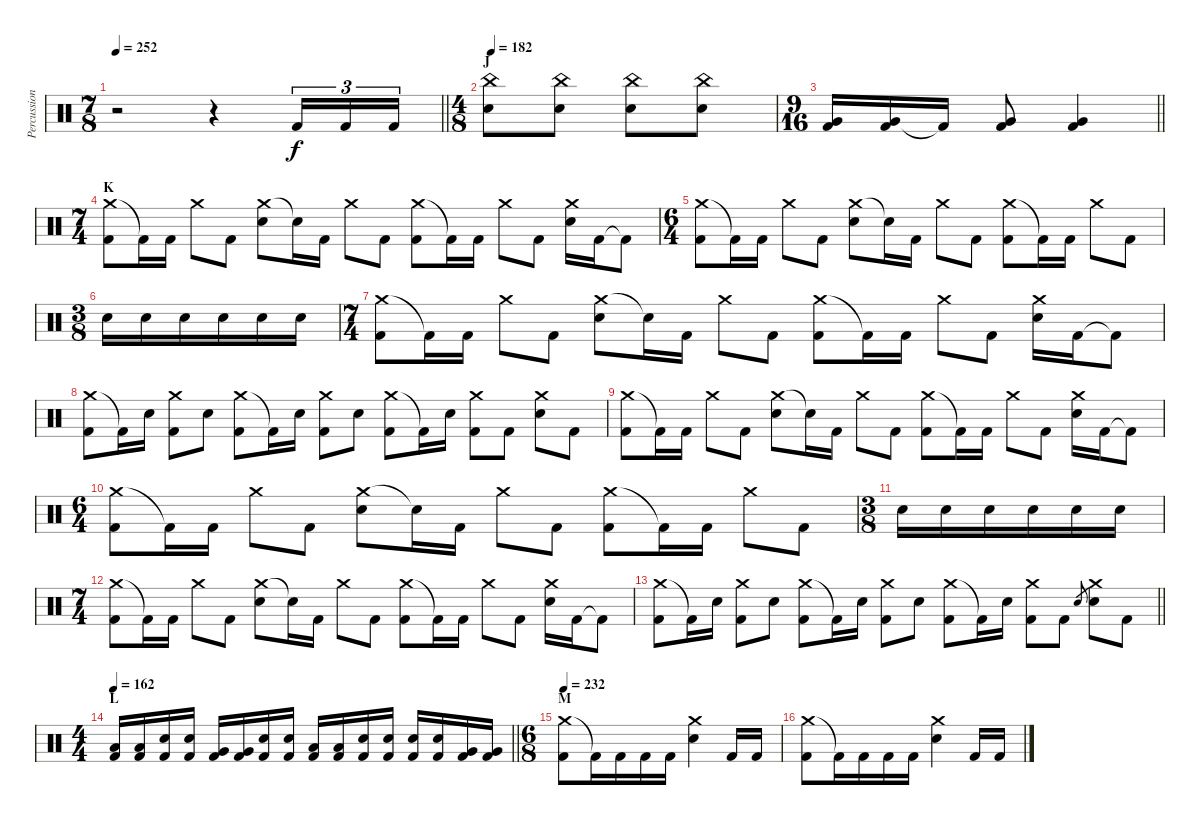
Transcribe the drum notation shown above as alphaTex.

\track ("Percussion" "Percussion") {instrument percussion}
\staff {score}
\articulation defaults
\ts (7 8)
\tempo 252
\clef neutral
\barLineRight lightlight
\ks c
r.2{dy f} r.4 "Kick (hit) 2".16{tu (3 2) volume 14} "Kick (hit) 2".16{tu (3 2)} "Kick (hit) 2".16{tu (3 2)} |
\ts (4 8)
\section ("" "J")
\tempo 182
("China (hit)" "Electric Snare (hit)").8 ("China (hit)" "Electric Snare (hit)").8 ("China (hit)" "Electric Snare (hit)").8 ("China (hit)" "Electric Snare (hit)").8 |
\ts (9 16)
\barLineRight lightlight
("Very Low Tom (hit)" "Kick (hit) 2").16 ("Very Low Tom (hit)" "Kick (hit) 2").16 "Kick (hit) 2"{t}.16 ("Very Low Tom (hit)" "Kick (hit) 2").8 ("Very Low Tom (hit)" "Kick (hit) 2").4 |
\ts (7 4)
\section ("" "K")
("Crash medium (hit)" "Kick (hit) 2").8 "Kick (hit) 2"{t}.16 "Kick (hit) 2".16 "Crash medium (hit)".8 "Kick (hit) 2".8 ("Crash medium (hit)" "Electric Snare (hit)").8 "Electric Snare (hit)"{t}.16 "Kick (hit) 2".16 "Crash medium (hit)".8 "Kick (hit) 2".8 ("Crash medium (hit)" "Kick (hit) 2").8 "Kick (hit) 2"{t}.16 "Kick (hit) 2".16 "Crash medium (hit)".8 "Kick (hit) 2".8 ("Crash medium (hit)" "Electric Snare (hit)").16 "Kick (hit) 2".16 "Kick (hit) 2"{t}.8 |
\ts (6 4)
("Crash medium (hit)" "Kick (hit) 2").8 "Kick (hit) 2"{t}.16 "Kick (hit) 2".16 "Crash medium (hit)".8 "Kick (hit) 2".8 ("Crash medium (hit)" "Electric Snare (hit)").8 "Electric Snare (hit)"{t}.16 "Kick (hit) 2".16 "Crash medium (hit)".8 "Kick (hit) 2".8 ("Crash medium (hit)" "Kick (hit) 2").8 "Kick (hit) 2"{t}.16 "Kick (hit) 2".16 "Crash medium (hit)".8 "Kick (hit) 2".8 |
\ts (3 8)
"Electric Snare (hit)".16 "Electric Snare (hit)".16 "Electric Snare (hit)".16 "Electric Snare (hit)".16 "Electric Snare (hit)".16 "Electric Snare (hit)".16 |
\ts (7 4)
("Crash medium (hit)" "Kick (hit) 2").8 "Kick (hit) 2"{t}.16 "Kick (hit) 2".16 "Crash medium (hit)".8 "Kick (hit) 2".8 ("Crash medium (hit)" "Electric Snare (hit)").8 "Electric Snare (hit)"{t}.16 "Kick (hit) 2".16 "Crash medium (hit)".8 "Kick (hit) 2".8 ("Crash medium (hit)" "Kick (hit) 2").8 "Kick (hit) 2"{t}.16 "Kick (hit) 2".16 "Crash medium (hit)".8 "Kick (hit) 2".8 ("Crash medium (hit)" "Electric Snare (hit)").16 "Kick (hit) 2".16 "Kick (hit) 2"{t}.8 |
("Crash medium (hit)" "Kick (hit) 2").8 "Kick (hit) 2"{t}.16 "Electric Snare (hit)".16 ("Crash medium (hit)" "Kick (hit) 2").8 "Electric Snare (hit)".8 ("Crash medium (hit)" "Kick (hit) 2").8 "Kick (hit) 2"{t}.16 "Electric Snare (hit)".16 ("Crash medium (hit)" "Kick (hit) 2").8 "Electric Snare (hit)".8 ("Crash medium (hit)" "Kick (hit) 2").8 "Kick (hit) 2"{t}.16 "Electric Snare (hit)".16 ("Crash medium (hit)" "Kick (hit) 2").8 "Kick (hit) 2".8 ("Crash medium (hit)" "Electric Snare (hit)").8 "Kick (hit) 2".8 |
("Crash medium (hit)" "Kick (hit) 2").8 "Kick (hit) 2"{t}.16 "Kick (hit) 2".16 "Crash medium (hit)".8 "Kick (hit) 2".8 ("Crash medium (hit)" "Electric Snare (hit)").8 "Electric Snare (hit)"{t}.16 "Kick (hit) 2".16 "Crash medium (hit)".8 "Kick (hit) 2".8 ("Crash medium (hit)" "Kick (hit) 2").8 "Kick (hit) 2"{t}.16 "Kick (hit) 2".16 "Crash medium (hit)".8 "Kick (hit) 2".8 ("Crash medium (hit)" "Electric Snare (hit)").16 "Kick (hit) 2".16 "Kick (hit) 2"{t}.8 |
\ts (6 4)
("Crash medium (hit)" "Kick (hit) 2").8 "Kick (hit) 2"{t}.16 "Kick (hit) 2".16 "Crash medium (hit)".8 "Kick (hit) 2".8 ("Crash medium (hit)" "Electric Snare (hit)").8 "Electric Snare (hit)"{t}.16 "Kick (hit) 2".16 "Crash medium (hit)".8 "Kick (hit) 2".8 ("Crash medium (hit)" "Kick (hit) 2").8 "Kick (hit) 2"{t}.16 "Kick (hit) 2".16 "Crash medium (hit)".8 "Kick (hit) 2".8 |
\ts (3 8)
"Electric Snare (hit)".16 "Electric Snare (hit)".16 "Electric Snare (hit)".16 "Electric Snare (hit)".16 "Electric Snare (hit)".16 "Electric Snare (hit)".16 |
\ts (7 4)
("Crash medium (hit)" "Kick (hit) 2").8 "Kick (hit) 2"{t}.16 "Kick (hit) 2".16 "Crash medium (hit)".8 "Kick (hit) 2".8 ("Crash medium (hit)" "Electric Snare (hit)").8 "Electric Snare (hit)"{t}.16 "Kick (hit) 2".16 "Crash medium (hit)".8 "Kick (hit) 2".8 ("Crash medium (hit)" "Kick (hit) 2").8 "Kick (hit) 2"{t}.16 "Kick (hit) 2".16 "Crash medium (hit)".8 "Kick (hit) 2".8 ("Crash medium (hit)" "Electric Snare (hit)").16 "Kick (hit) 2".16 "Kick (hit) 2"{t}.8 |
\barLineRight lightlight
("Crash medium (hit)" "Kick (hit) 2").8 "Kick (hit) 2"{t}.16 "Electric Snare (hit)".16 ("Crash medium (hit)" "Kick (hit) 2").8 "Electric Snare (hit)".8 ("Crash medium (hit)" "Kick (hit) 2").8 "Kick (hit) 2"{t}.16 "Electric Snare (hit)".16 ("Crash medium (hit)" "Kick (hit) 2").8 "Electric Snare (hit)".8 ("Crash medium (hit)" "Kick (hit) 2").8 "Kick (hit) 2"{t}.16 "Electric Snare (hit)".16 ("Crash medium (hit)" "Kick (hit) 2").8 "Kick (hit) 2".8 "Electric Snare (hit)".8{gr} ("Crash medium (hit)" "Electric Snare (hit)").8 "Kick (hit) 2".8 |
\ts (4 4)
\section ("" "L")
\tempo 162
\barLineRight lightlight
("Low Tom (hit)" "Kick (hit) 2").16 ("Low Tom (hit)" "Kick (hit) 2").16 ("Electric Snare (hit)" "Kick (hit) 2").16 ("Electric Snare (hit)" "Kick (hit) 2").16 ("Very Low Tom (hit)" "Kick (hit) 2").16 ("Very Low Tom (hit)" "Kick (hit) 2").16 ("Electric Snare (hit)" "Kick (hit) 2").16 ("Electric Snare (hit)" "Kick (hit) 2").16 ("Low Tom (hit)" "Kick (hit) 2").16 ("Low Tom (hit)" "Kick (hit) 2").16 ("Electric Snare (hit)" "Kick (hit) 2").16 ("Electric Snare (hit)" "Kick (hit) 2").16 ("Electric Snare (hit)" "Kick (hit) 2").16 ("Electric Snare (hit)" "Kick (hit) 2").16 ("Very Low Tom (hit)" "Kick (hit) 2").16 ("Very Low Tom (hit)" "Kick (hit) 2").16 |
\ts (6 8)
\section ("" "M")
\tempo 232
("Crash medium (hit)" "Kick (hit) 2").8 "Kick (hit) 2"{t}.16 "Kick (hit) 2".16 "Kick (hit) 2".16 "Kick (hit) 2".16 ("Crash medium (hit)" "Electric Snare (hit)").4 "Kick (hit) 2".16 "Kick (hit) 2".16 |
("Crash medium (hit)" "Kick (hit) 2").8 "Kick (hit) 2"{t}.16 "Kick (hit) 2".16 "Kick (hit) 2".16 "Kick (hit) 2".16 ("Crash medium (hit)" "Electric Snare (hit)").4 "Kick (hit) 2".16 "Kick (hit) 2".16
